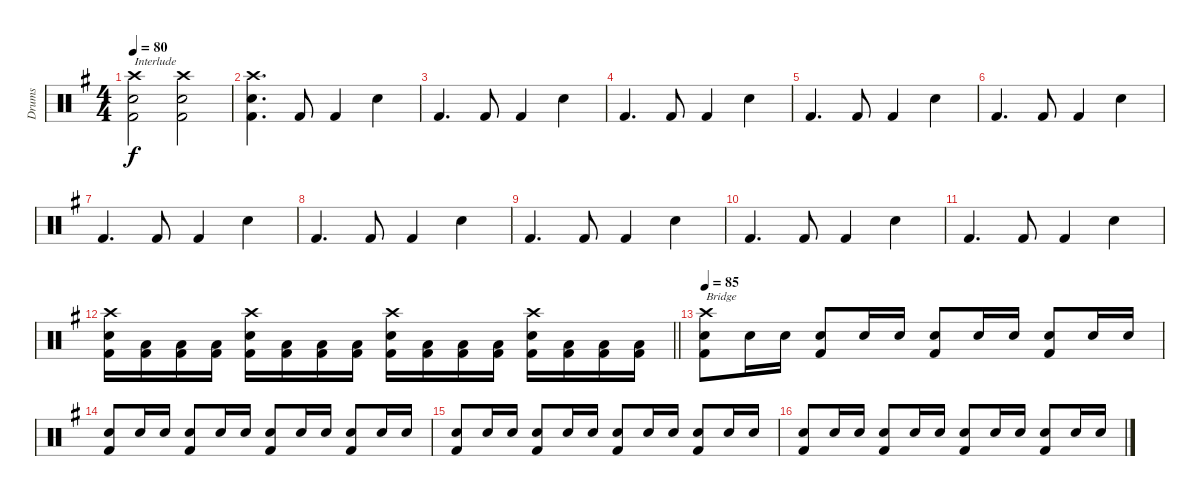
\track ("Drums" "Drums") {instrument percussion}
\staff {score}
\articulation defaults
\ts (4 4)
\tempo 80
\clef neutral
\ks g
("Crash high (hit)" "Snare (hit) 2" "Kick (hit) 2").2{txt "Interlude" dy f} ("Crash high (hit)" "Snare (hit) 2" "Kick (hit) 2").2 |
("Crash high (hit)" "Snare (hit) 2" "Kick (hit) 2").4{d} "Kick (hit) 2".8 "Kick (hit) 2".4 "Snare (hit) 2".4 |
"Kick (hit) 2".4{d} "Kick (hit) 2".8 "Kick (hit) 2".4 "Snare (hit) 2".4 |
"Kick (hit) 2".4{d} "Kick (hit) 2".8 "Kick (hit) 2".4 "Snare (hit) 2".4 |
"Kick (hit) 2".4{d} "Kick (hit) 2".8 "Kick (hit) 2".4 "Snare (hit) 2".4 |
"Kick (hit) 2".4{d} "Kick (hit) 2".8 "Kick (hit) 2".4 "Snare (hit) 2".4 |
"Kick (hit) 2".4{d} "Kick (hit) 2".8 "Kick (hit) 2".4 "Snare (hit) 2".4 |
"Kick (hit) 2".4{d} "Kick (hit) 2".8 "Kick (hit) 2".4 "Snare (hit) 2".4 |
"Kick (hit) 2".4{d} "Kick (hit) 2".8 "Kick (hit) 2".4 "Snare (hit) 2".4 |
"Kick (hit) 2".4{d} "Kick (hit) 2".8 "Kick (hit) 2".4 "Snare (hit) 2".4 |
"Kick (hit) 2".4{d} "Kick (hit) 2".8 "Kick (hit) 2".4 "Snare (hit) 2".4 |
\barLineRight lightlight
("Crash high (hit)" "Snare (hit) 2" "Kick (hit) 2").16 ("Low Floor Tom (hit)" "Kick (hit) 2").16 ("Low Floor Tom (hit)" "Kick (hit) 2").16 ("Low Floor Tom (hit)" "Kick (hit) 2").16 ("Crash high (hit)" "Snare (hit) 2" "Kick (hit) 2").16 ("Low Floor Tom (hit)" "Kick (hit) 2").16 ("Low Floor Tom (hit)" "Kick (hit) 2").16 ("Low Floor Tom (hit)" "Kick (hit) 2").16 ("Crash high (hit)" "Snare (hit) 2" "Kick (hit) 2").16 ("Low Floor Tom (hit)" "Kick (hit) 2").16 ("Low Floor Tom (hit)" "Kick (hit) 2").16 ("Low Floor Tom (hit)" "Kick (hit) 2").16 ("Crash high (hit)" "Snare (hit) 2" "Kick (hit) 2").16 ("Low Floor Tom (hit)" "Kick (hit) 2").16 ("Low Floor Tom (hit)" "Kick (hit) 2").16 ("Low Floor Tom (hit)" "Kick (hit) 2").16 |
\tempo 85
("Crash high (hit)" "Snare (hit) 2" "Kick (hit) 2").8{txt "Bridge"} "Snare (hit) 2".16 "Snare (hit) 2".16 ("Snare (hit) 2" "Kick (hit) 2").8 "Snare (hit) 2".16 "Snare (hit) 2".16 ("Snare (hit) 2" "Kick (hit) 2").8 "Snare (hit) 2".16 "Snare (hit) 2".16 ("Snare (hit) 2" "Kick (hit) 2").8 "Snare (hit) 2".16 "Snare (hit) 2".16 |
("Snare (hit) 2" "Kick (hit) 2").8 "Snare (hit) 2".16 "Snare (hit) 2".16 ("Snare (hit) 2" "Kick (hit) 2").8 "Snare (hit) 2".16 "Snare (hit) 2".16 ("Snare (hit) 2" "Kick (hit) 2").8 "Snare (hit) 2".16 "Snare (hit) 2".16 ("Snare (hit) 2" "Kick (hit) 2").8 "Snare (hit) 2".16 "Snare (hit) 2".16 |
("Snare (hit) 2" "Kick (hit) 2").8 "Snare (hit) 2".16 "Snare (hit) 2".16 ("Snare (hit) 2" "Kick (hit) 2").8 "Snare (hit) 2".16 "Snare (hit) 2".16 ("Snare (hit) 2" "Kick (hit) 2").8 "Snare (hit) 2".16 "Snare (hit) 2".16 ("Snare (hit) 2" "Kick (hit) 2").8 "Snare (hit) 2".16 "Snare (hit) 2".16 |
("Snare (hit) 2" "Kick (hit) 2").8 "Snare (hit) 2".16 "Snare (hit) 2".16 ("Snare (hit) 2" "Kick (hit) 2").8 "Snare (hit) 2".16 "Snare (hit) 2".16 ("Snare (hit) 2" "Kick (hit) 2").8 "Snare (hit) 2".16 "Snare (hit) 2".16 ("Snare (hit) 2" "Kick (hit) 2").8 "Snare (hit) 2".16 "Snare (hit) 2".16
